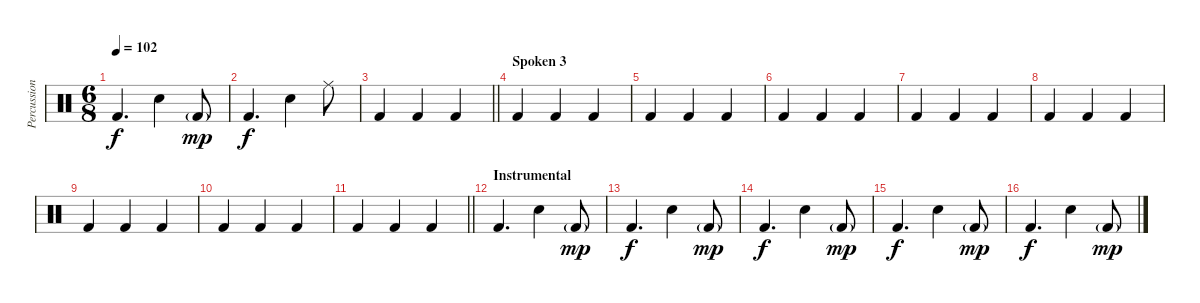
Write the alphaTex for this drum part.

\track ("Percussion" "Percussion") {instrument percussion}
\staff {score}
\articulation defaults
\ts (6 8)
\tempo 102
\clef neutral
\ks c "Kick (hit) 2".4{d dy f} "Snare (hit) 2".4 "Kick (hit) 2"{g}.8{dy mp}
|
"Kick (hit) 2".4{d dy f} "Snare (hit) 2".4 "Ride (middle)".8 |
\barLineRight lightlight "Kick (hit) 2".4 "Kick (hit) 2".4 "Kick (hit) 2".4
|
\section ("" "Spoken 3")
"Kick (hit) 2".4 "Kick (hit) 2".4 "Kick (hit) 2".4 |
"Kick (hit) 2".4 "Kick (hit) 2".4 "Kick (hit) 2".4 |
"Kick (hit) 2".4 "Kick (hit) 2".4 "Kick (hit) 2".4 |
"Kick (hit) 2".4 "Kick (hit) 2".4 "Kick (hit) 2".4 |
"Kick (hit) 2".4 "Kick (hit) 2".4 "Kick (hit) 2".4 |
"Kick (hit) 2".4 "Kick (hit) 2".4 "Kick (hit) 2".4 |
"Kick (hit) 2".4 "Kick (hit) 2".4 "Kick (hit) 2".4 |
\barLineRight lightlight "Kick (hit) 2".4 "Kick (hit) 2".4 "Kick (hit) 2".4
|
\section ("" "Instrumental")
"Kick (hit) 2".4{d} "Snare (hit) 2".4 "Kick (hit) 2"{g}.8{dy mp} |
"Kick (hit) 2".4{d dy f} "Snare (hit) 2".4 "Kick (hit) 2"{g}.8{dy mp} |
"Kick (hit) 2".4{d dy f} "Snare (hit) 2".4 "Kick (hit) 2"{g}.8{dy mp} |
"Kick (hit) 2".4{d dy f} "Snare (hit) 2".4 "Kick (hit) 2"{g}.8{dy mp} |
"Kick (hit) 2".4{d dy f} "Snare (hit) 2".4 "Kick (hit) 2"{g}.8{dy mp}
